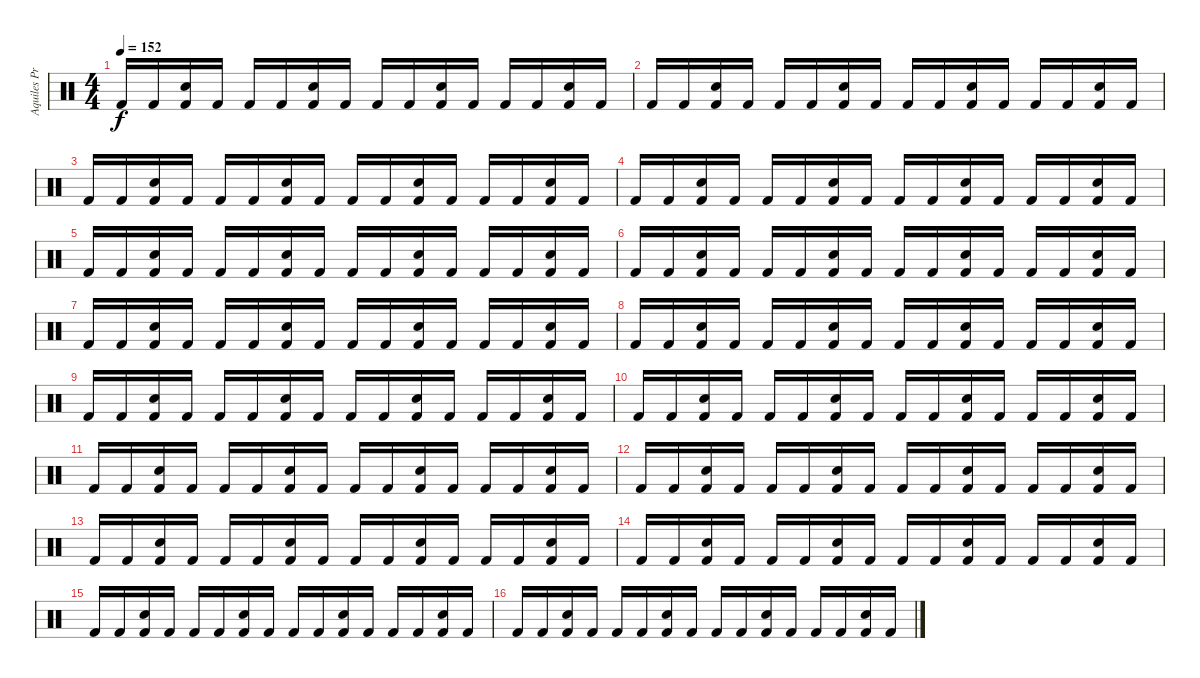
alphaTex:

\track ("Aquiles Priester" "Aquiles Pr") {instrument percussion}
\staff {score}
\articulation defaults
\ts (4 4)
\tempo 152
\clef neutral
\ks c "Kick (hit) 2".16{dy f} "Kick (hit) 2".16
("Electric Snare (hit)" "Kick (hit) 2").16 "Kick (hit) 2".16 "Kick (hit) 2".16 "Kick (hit) 2".16 ("Electric Snare (hit)" "Kick (hit) 2").16 "Kick (hit) 2".16 "Kick (hit) 2".16 "Kick (hit) 2".16 ("Electric Snare (hit)" "Kick (hit) 2").16 "Kick (hit) 2".16 "Kick (hit) 2".16 "Kick (hit) 2".16 ("Electric Snare (hit)" "Kick (hit) 2").16 "Kick (hit) 2".16 |
"Kick (hit) 2".16 "Kick (hit) 2".16 ("Electric Snare (hit)" "Kick (hit) 2").16 "Kick (hit) 2".16 "Kick (hit) 2".16 "Kick (hit) 2".16 ("Electric Snare (hit)" "Kick (hit) 2").16 "Kick (hit) 2".16 "Kick (hit) 2".16 "Kick (hit) 2".16 ("Electric Snare (hit)" "Kick (hit) 2").16 "Kick (hit) 2".16 "Kick (hit) 2".16 "Kick (hit) 2".16 ("Electric Snare (hit)" "Kick (hit) 2").16 "Kick (hit) 2".16 |
"Kick (hit) 2".16 "Kick (hit) 2".16 ("Electric Snare (hit)" "Kick (hit) 2").16 "Kick (hit) 2".16 "Kick (hit) 2".16 "Kick (hit) 2".16 ("Electric Snare (hit)" "Kick (hit) 2").16 "Kick (hit) 2".16 "Kick (hit) 2".16 "Kick (hit) 2".16 ("Electric Snare (hit)" "Kick (hit) 2").16 "Kick (hit) 2".16 "Kick (hit) 2".16 "Kick (hit) 2".16 ("Electric Snare (hit)" "Kick (hit) 2").16 "Kick (hit) 2".16 |
"Kick (hit) 2".16 "Kick (hit) 2".16 ("Electric Snare (hit)" "Kick (hit) 2").16 "Kick (hit) 2".16 "Kick (hit) 2".16 "Kick (hit) 2".16 ("Electric Snare (hit)" "Kick (hit) 2").16 "Kick (hit) 2".16 "Kick (hit) 2".16 "Kick (hit) 2".16 ("Electric Snare (hit)" "Kick (hit) 2").16 "Kick (hit) 2".16 "Kick (hit) 2".16 "Kick (hit) 2".16 ("Electric Snare (hit)" "Kick (hit) 2").16 "Kick (hit) 2".16 |
"Kick (hit) 2".16 "Kick (hit) 2".16 ("Electric Snare (hit)" "Kick (hit) 2").16 "Kick (hit) 2".16 "Kick (hit) 2".16 "Kick (hit) 2".16 ("Electric Snare (hit)" "Kick (hit) 2").16 "Kick (hit) 2".16 "Kick (hit) 2".16 "Kick (hit) 2".16 ("Electric Snare (hit)" "Kick (hit) 2").16 "Kick (hit) 2".16 "Kick (hit) 2".16 "Kick (hit) 2".16 ("Electric Snare (hit)" "Kick (hit) 2").16 "Kick (hit) 2".16 |
"Kick (hit) 2".16 "Kick (hit) 2".16 ("Electric Snare (hit)" "Kick (hit) 2").16 "Kick (hit) 2".16 "Kick (hit) 2".16 "Kick (hit) 2".16 ("Electric Snare (hit)" "Kick (hit) 2").16 "Kick (hit) 2".16 "Kick (hit) 2".16 "Kick (hit) 2".16 ("Electric Snare (hit)" "Kick (hit) 2").16 "Kick (hit) 2".16 "Kick (hit) 2".16 "Kick (hit) 2".16 ("Electric Snare (hit)" "Kick (hit) 2").16 "Kick (hit) 2".16 |
"Kick (hit) 2".16 "Kick (hit) 2".16 ("Electric Snare (hit)" "Kick (hit) 2").16 "Kick (hit) 2".16 "Kick (hit) 2".16 "Kick (hit) 2".16 ("Electric Snare (hit)" "Kick (hit) 2").16 "Kick (hit) 2".16 "Kick (hit) 2".16 "Kick (hit) 2".16 ("Electric Snare (hit)" "Kick (hit) 2").16 "Kick (hit) 2".16 "Kick (hit) 2".16 "Kick (hit) 2".16 ("Electric Snare (hit)" "Kick (hit) 2").16 "Kick (hit) 2".16 |
"Kick (hit) 2".16 "Kick (hit) 2".16 ("Electric Snare (hit)" "Kick (hit) 2").16 "Kick (hit) 2".16 "Kick (hit) 2".16 "Kick (hit) 2".16 ("Electric Snare (hit)" "Kick (hit) 2").16 "Kick (hit) 2".16 "Kick (hit) 2".16 "Kick (hit) 2".16 ("Electric Snare (hit)" "Kick (hit) 2").16 "Kick (hit) 2".16 "Kick (hit) 2".16 "Kick (hit) 2".16 ("Electric Snare (hit)" "Kick (hit) 2").16 "Kick (hit) 2".16 |
"Kick (hit) 2".16 "Kick (hit) 2".16 ("Electric Snare (hit)" "Kick (hit) 2").16 "Kick (hit) 2".16 "Kick (hit) 2".16 "Kick (hit) 2".16 ("Electric Snare (hit)" "Kick (hit) 2").16 "Kick (hit) 2".16 "Kick (hit) 2".16 "Kick (hit) 2".16 ("Electric Snare (hit)" "Kick (hit) 2").16 "Kick (hit) 2".16 "Kick (hit) 2".16 "Kick (hit) 2".16 ("Electric Snare (hit)" "Kick (hit) 2").16 "Kick (hit) 2".16 |
"Kick (hit) 2".16 "Kick (hit) 2".16 ("Electric Snare (hit)" "Kick (hit) 2").16 "Kick (hit) 2".16 "Kick (hit) 2".16 "Kick (hit) 2".16 ("Electric Snare (hit)" "Kick (hit) 2").16 "Kick (hit) 2".16 "Kick (hit) 2".16 "Kick (hit) 2".16 ("Electric Snare (hit)" "Kick (hit) 2").16 "Kick (hit) 2".16 "Kick (hit) 2".16 "Kick (hit) 2".16 ("Electric Snare (hit)" "Kick (hit) 2").16 "Kick (hit) 2".16 |
"Kick (hit) 2".16 "Kick (hit) 2".16 ("Electric Snare (hit)" "Kick (hit) 2").16 "Kick (hit) 2".16 "Kick (hit) 2".16 "Kick (hit) 2".16 ("Electric Snare (hit)" "Kick (hit) 2").16 "Kick (hit) 2".16 "Kick (hit) 2".16 "Kick (hit) 2".16 ("Electric Snare (hit)" "Kick (hit) 2").16 "Kick (hit) 2".16 "Kick (hit) 2".16 "Kick (hit) 2".16 ("Electric Snare (hit)" "Kick (hit) 2").16 "Kick (hit) 2".16 |
"Kick (hit) 2".16 "Kick (hit) 2".16 ("Electric Snare (hit)" "Kick (hit) 2").16 "Kick (hit) 2".16 "Kick (hit) 2".16 "Kick (hit) 2".16 ("Electric Snare (hit)" "Kick (hit) 2").16 "Kick (hit) 2".16 "Kick (hit) 2".16 "Kick (hit) 2".16 ("Electric Snare (hit)" "Kick (hit) 2").16 "Kick (hit) 2".16 "Kick (hit) 2".16 "Kick (hit) 2".16 ("Electric Snare (hit)" "Kick (hit) 2").16 "Kick (hit) 2".16 |
"Kick (hit) 2".16 "Kick (hit) 2".16 ("Electric Snare (hit)" "Kick (hit) 2").16 "Kick (hit) 2".16 "Kick (hit) 2".16 "Kick (hit) 2".16 ("Electric Snare (hit)" "Kick (hit) 2").16 "Kick (hit) 2".16 "Kick (hit) 2".16 "Kick (hit) 2".16 ("Electric Snare (hit)" "Kick (hit) 2").16 "Kick (hit) 2".16 "Kick (hit) 2".16 "Kick (hit) 2".16 ("Electric Snare (hit)" "Kick (hit) 2").16 "Kick (hit) 2".16 |
"Kick (hit) 2".16 "Kick (hit) 2".16 ("Electric Snare (hit)" "Kick (hit) 2").16 "Kick (hit) 2".16 "Kick (hit) 2".16 "Kick (hit) 2".16 ("Electric Snare (hit)" "Kick (hit) 2").16 "Kick (hit) 2".16 "Kick (hit) 2".16 "Kick (hit) 2".16 ("Electric Snare (hit)" "Kick (hit) 2").16 "Kick (hit) 2".16 "Kick (hit) 2".16 "Kick (hit) 2".16 ("Electric Snare (hit)" "Kick (hit) 2").16 "Kick (hit) 2".16 |
"Kick (hit) 2".16 "Kick (hit) 2".16 ("Electric Snare (hit)" "Kick (hit) 2").16 "Kick (hit) 2".16 "Kick (hit) 2".16 "Kick (hit) 2".16 ("Electric Snare (hit)" "Kick (hit) 2").16 "Kick (hit) 2".16 "Kick (hit) 2".16 "Kick (hit) 2".16 ("Electric Snare (hit)" "Kick (hit) 2").16 "Kick (hit) 2".16 "Kick (hit) 2".16 "Kick (hit) 2".16 ("Electric Snare (hit)" "Kick (hit) 2").16 "Kick (hit) 2".16 |
"Kick (hit) 2".16 "Kick (hit) 2".16 ("Electric Snare (hit)" "Kick (hit) 2").16 "Kick (hit) 2".16 "Kick (hit) 2".16 "Kick (hit) 2".16 ("Electric Snare (hit)" "Kick (hit) 2").16 "Kick (hit) 2".16 "Kick (hit) 2".16 "Kick (hit) 2".16 ("Electric Snare (hit)" "Kick (hit) 2").16 "Kick (hit) 2".16 "Kick (hit) 2".16 "Kick (hit) 2".16 ("Electric Snare (hit)" "Kick (hit) 2").16 "Kick (hit) 2".16
